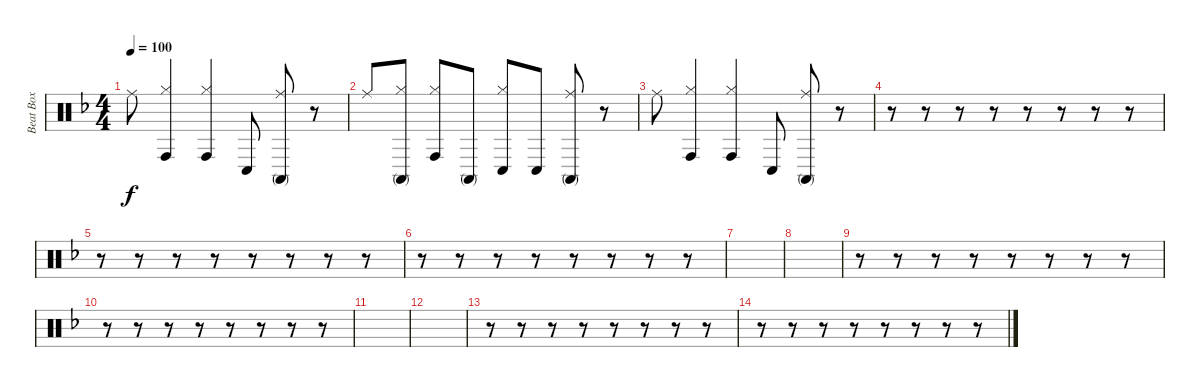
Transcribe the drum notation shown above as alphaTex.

\track ("Beat Box" "Beat Box") {instrument percussion}
\staff {score}
\articulation defaults
\ts (4 4)
\tempo 100
\clef neutral
\ks dminor "Ride (middle)".8{dy f}
("Hi-Hat (closed)" "Conga high (hit)").4 ("Hi-Hat (closed)" "Conga high (hit)").4 "Conga low (hit)".8 ("Ride (middle)" "Conga high (mute)").8 r.8 |
"Ride (middle)".8 ("Hi-Hat (closed)" "Conga high (mute)").8 ("Hi-Hat (closed)" "Conga high (hit)").8 "Conga high (mute)".8 ("Hi-Hat (closed)" "Conga low (hit)").8 "Conga low (hit)".8 ("Ride (middle)" "Conga high (mute)").8 r.8 |
"Ride (middle)".8 ("Hi-Hat (closed)" "Conga high (hit)").4 ("Hi-Hat (closed)" "Conga high (hit)").4 "Conga low (hit)".8 ("Ride (middle)" "Conga high (mute)").8 r.8 |
r.8 r.8 r.8 r.8 r.8 r.8 r.8 r.8 |
r.8 r.8 r.8 r.8 r.8 r.8 r.8 r.8 |
r.8 r.8 r.8 r.8 r.8 r.8 r.8 r.8 |
|
|
r.8 r.8 r.8 r.8 r.8 r.8 r.8 r.8 |
r.8 r.8 r.8 r.8 r.8 r.8 r.8 r.8 |
|
|
r.8 r.8 r.8 r.8 r.8 r.8 r.8 r.8 |
r.8 r.8 r.8 r.8 r.8 r.8 r.8 r.8
